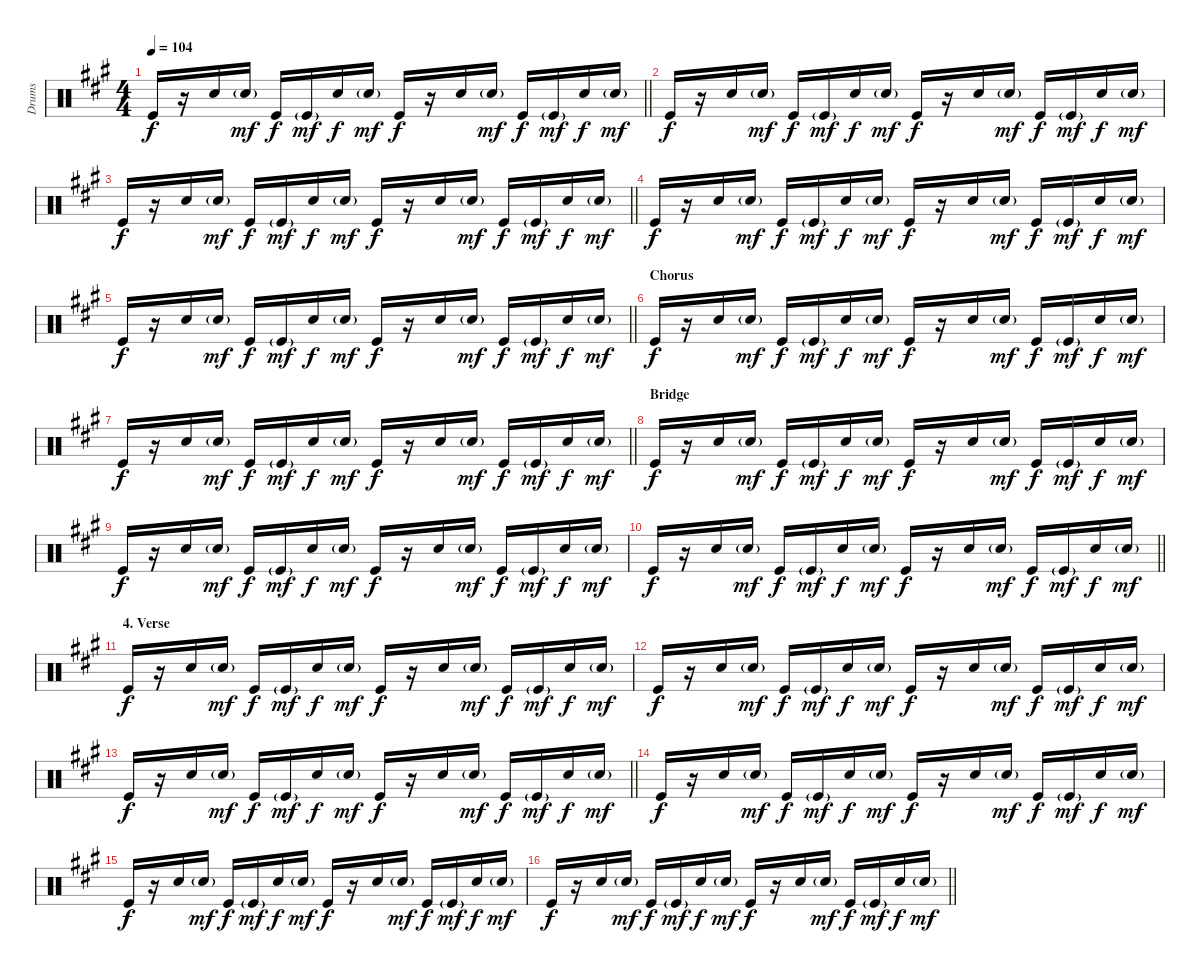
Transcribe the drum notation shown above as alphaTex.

\track ("Drums" "Drums") {mute instrument percussion}
\staff {score}
\articulation defaults
\ts (4 4)
\tempo 104
\clef neutral
\barLineRight lightlight
\ks a "Kick (hit)".16{dy f}
r.16 "Snare (hit) 2".16 "Snare (hit) 2"{g}.16{dy mf} "Kick (hit)".16{dy f} "Kick (hit)"{g}.16{dy mf} "Snare (hit) 2".16{dy f} "Snare (hit) 2"{g}.16{dy mf} "Kick (hit)".16{dy f} r.16 "Snare (hit) 2".16 "Snare (hit) 2"{g}.16{dy mf} "Kick (hit)".16{dy f} "Kick (hit)"{g}.16{dy mf} "Snare (hit) 2".16{dy f} "Snare (hit) 2"{g}.16{dy mf} |
"Kick (hit)".16{dy f} r.16 "Snare (hit) 2".16 "Snare (hit) 2"{g}.16{dy mf} "Kick (hit)".16{dy f} "Kick (hit)"{g}.16{dy mf} "Snare (hit) 2".16{dy f} "Snare (hit) 2"{g}.16{dy mf} "Kick (hit)".16{dy f} r.16 "Snare (hit) 2".16 "Snare (hit) 2"{g}.16{dy mf} "Kick (hit)".16{dy f} "Kick (hit)"{g}.16{dy mf} "Snare (hit) 2".16{dy f} "Snare (hit) 2"{g}.16{dy mf} |
\barLineRight lightlight "Kick (hit)".16{dy f}
r.16 "Snare (hit) 2".16 "Snare (hit) 2"{g}.16{dy mf} "Kick (hit)".16{dy f} "Kick (hit)"{g}.16{dy mf} "Snare (hit) 2".16{dy f} "Snare (hit) 2"{g}.16{dy mf} "Kick (hit)".16{dy f} r.16 "Snare (hit) 2".16 "Snare (hit) 2"{g}.16{dy mf} "Kick (hit)".16{dy f} "Kick (hit)"{g}.16{dy mf} "Snare (hit) 2".16{dy f} "Snare (hit) 2"{g}.16{dy mf} |
"Kick (hit)".16{dy f} r.16 "Snare (hit) 2".16 "Snare (hit) 2"{g}.16{dy mf} "Kick (hit)".16{dy f} "Kick (hit)"{g}.16{dy mf} "Snare (hit) 2".16{dy f} "Snare (hit) 2"{g}.16{dy mf} "Kick (hit)".16{dy f} r.16 "Snare (hit) 2".16 "Snare (hit) 2"{g}.16{dy mf} "Kick (hit)".16{dy f} "Kick (hit)"{g}.16{dy mf} "Snare (hit) 2".16{dy f} "Snare (hit) 2"{g}.16{dy mf} |
\barLineRight lightlight "Kick (hit)".16{dy f}
r.16 "Snare (hit) 2".16 "Snare (hit) 2"{g}.16{dy mf} "Kick (hit)".16{dy f} "Kick (hit)"{g}.16{dy mf} "Snare (hit) 2".16{dy f} "Snare (hit) 2"{g}.16{dy mf} "Kick (hit)".16{dy f} r.16 "Snare (hit) 2".16 "Snare (hit) 2"{g}.16{dy mf} "Kick (hit)".16{dy f} "Kick (hit)"{g}.16{dy mf} "Snare (hit) 2".16{dy f} "Snare (hit) 2"{g}.16{dy mf} |
\section ("" "Chorus")
"Kick (hit)".16{dy f} r.16 "Snare (hit) 2".16 "Snare (hit) 2"{g}.16{dy mf} "Kick (hit)".16{dy f} "Kick (hit)"{g}.16{dy mf} "Snare (hit) 2".16{dy f} "Snare (hit) 2"{g}.16{dy mf} "Kick (hit)".16{dy f} r.16 "Snare (hit) 2".16 "Snare (hit) 2"{g}.16{dy mf} "Kick (hit)".16{dy f} "Kick (hit)"{g}.16{dy mf} "Snare (hit) 2".16{dy f} "Snare (hit) 2"{g}.16{dy mf} |
\barLineRight lightlight "Kick (hit)".16{dy f}
r.16 "Snare (hit) 2".16 "Snare (hit) 2"{g}.16{dy mf} "Kick (hit)".16{dy f} "Kick (hit)"{g}.16{dy mf} "Snare (hit) 2".16{dy f} "Snare (hit) 2"{g}.16{dy mf} "Kick (hit)".16{dy f} r.16 "Snare (hit) 2".16 "Snare (hit) 2"{g}.16{dy mf} "Kick (hit)".16{dy f} "Kick (hit)"{g}.16{dy mf} "Snare (hit) 2".16{dy f} "Snare (hit) 2"{g}.16{dy mf} |
\section ("" "Bridge")
"Kick (hit)".16{dy f} r.16 "Snare (hit) 2".16 "Snare (hit) 2"{g}.16{dy mf} "Kick (hit)".16{dy f} "Kick (hit)"{g}.16{dy mf} "Snare (hit) 2".16{dy f} "Snare (hit) 2"{g}.16{dy mf} "Kick (hit)".16{dy f} r.16 "Snare (hit) 2".16 "Snare (hit) 2"{g}.16{dy mf} "Kick (hit)".16{dy f} "Kick (hit)"{g}.16{dy mf} "Snare (hit) 2".16{dy f} "Snare (hit) 2"{g}.16{dy mf} |
"Kick (hit)".16{dy f} r.16 "Snare (hit) 2".16 "Snare (hit) 2"{g}.16{dy mf} "Kick (hit)".16{dy f} "Kick (hit)"{g}.16{dy mf} "Snare (hit) 2".16{dy f} "Snare (hit) 2"{g}.16{dy mf} "Kick (hit)".16{dy f} r.16 "Snare (hit) 2".16 "Snare (hit) 2"{g}.16{dy mf} "Kick (hit)".16{dy f} "Kick (hit)"{g}.16{dy mf} "Snare (hit) 2".16{dy f} "Snare (hit) 2"{g}.16{dy mf} |
\barLineRight lightlight "Kick (hit)".16{dy f}
r.16 "Snare (hit) 2".16 "Snare (hit) 2"{g}.16{dy mf} "Kick (hit)".16{dy f} "Kick (hit)"{g}.16{dy mf} "Snare (hit) 2".16{dy f} "Snare (hit) 2"{g}.16{dy mf} "Kick (hit)".16{dy f} r.16 "Snare (hit) 2".16 "Snare (hit) 2"{g}.16{dy mf} "Kick (hit)".16{dy f} "Kick (hit)"{g}.16{dy mf} "Snare (hit) 2".16{dy f} "Snare (hit) 2"{g}.16{dy mf} |
\section ("" "4. Verse")
"Kick (hit)".16{dy f} r.16 "Snare (hit) 2".16 "Snare (hit) 2"{g}.16{dy mf} "Kick (hit)".16{dy f} "Kick (hit)"{g}.16{dy mf} "Snare (hit) 2".16{dy f} "Snare (hit) 2"{g}.16{dy mf} "Kick (hit)".16{dy f} r.16 "Snare (hit) 2".16 "Snare (hit) 2"{g}.16{dy mf} "Kick (hit)".16{dy f} "Kick (hit)"{g}.16{dy mf} "Snare (hit) 2".16{dy f} "Snare (hit) 2"{g}.16{dy mf} |
"Kick (hit)".16{dy f} r.16 "Snare (hit) 2".16 "Snare (hit) 2"{g}.16{dy mf} "Kick (hit)".16{dy f} "Kick (hit)"{g}.16{dy mf} "Snare (hit) 2".16{dy f} "Snare (hit) 2"{g}.16{dy mf} "Kick (hit)".16{dy f} r.16 "Snare (hit) 2".16 "Snare (hit) 2"{g}.16{dy mf} "Kick (hit)".16{dy f} "Kick (hit)"{g}.16{dy mf} "Snare (hit) 2".16{dy f} "Snare (hit) 2"{g}.16{dy mf} |
\barLineRight lightlight "Kick (hit)".16{dy f}
r.16 "Snare (hit) 2".16 "Snare (hit) 2"{g}.16{dy mf} "Kick (hit)".16{dy f} "Kick (hit)"{g}.16{dy mf} "Snare (hit) 2".16{dy f} "Snare (hit) 2"{g}.16{dy mf} "Kick (hit)".16{dy f} r.16 "Snare (hit) 2".16 "Snare (hit) 2"{g}.16{dy mf} "Kick (hit)".16{dy f} "Kick (hit)"{g}.16{dy mf} "Snare (hit) 2".16{dy f} "Snare (hit) 2"{g}.16{dy mf} |
"Kick (hit)".16{dy f} r.16 "Snare (hit) 2".16 "Snare (hit) 2"{g}.16{dy mf} "Kick (hit)".16{dy f} "Kick (hit)"{g}.16{dy mf} "Snare (hit) 2".16{dy f} "Snare (hit) 2"{g}.16{dy mf} "Kick (hit)".16{dy f} r.16 "Snare (hit) 2".16 "Snare (hit) 2"{g}.16{dy mf} "Kick (hit)".16{dy f} "Kick (hit)"{g}.16{dy mf} "Snare (hit) 2".16{dy f} "Snare (hit) 2"{g}.16{dy mf} |
"Kick (hit)".16{dy f} r.16 "Snare (hit) 2".16 "Snare (hit) 2"{g}.16{dy mf} "Kick (hit)".16{dy f} "Kick (hit)"{g}.16{dy mf} "Snare (hit) 2".16{dy f} "Snare (hit) 2"{g}.16{dy mf} "Kick (hit)".16{dy f} r.16 "Snare (hit) 2".16 "Snare (hit) 2"{g}.16{dy mf} "Kick (hit)".16{dy f} "Kick (hit)"{g}.16{dy mf} "Snare (hit) 2".16{dy f} "Snare (hit) 2"{g}.16{dy mf} |
\barLineRight lightlight "Kick (hit)".16{dy f}
r.16 "Snare (hit) 2".16 "Snare (hit) 2"{g}.16{dy mf} "Kick (hit)".16{dy f} "Kick (hit)"{g}.16{dy mf} "Snare (hit) 2".16{dy f} "Snare (hit) 2"{g}.16{dy mf} "Kick (hit)".16{dy f} r.16 "Snare (hit) 2".16 "Snare (hit) 2"{g}.16{dy mf} "Kick (hit)".16{dy f} "Kick (hit)"{g}.16{dy mf} "Snare (hit) 2".16{dy f} "Snare (hit) 2"{g}.16{dy mf}
